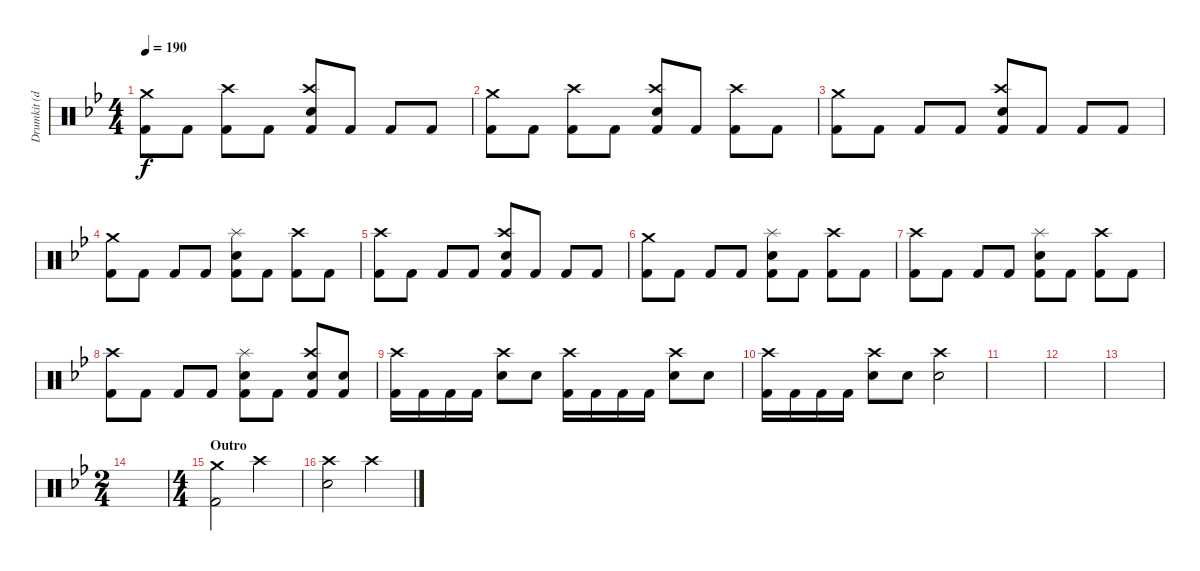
\track ("Drumkit (don't unmute)" "Drumkit (d") {instrument percussion}
\staff {score}
\articulation defaults
\ts (4 4)
\tempo 190
\clef neutral
\ks bb
("Kick (hit) 2" "Crash medium (hit)").8{dy f} "Kick (hit) 2".8 ("Kick (hit) 2" "Crash high (hit)").8 "Kick (hit) 2".8 ("Kick (hit) 2" "Snare (hit) 2" "Crash high (hit)").8 "Kick (hit) 2".8 "Kick (hit) 2".8 "Kick (hit) 2".8 |
("Kick (hit) 2" "Crash medium (hit)").8 "Kick (hit) 2".8 ("Kick (hit) 2" "Crash high (hit)").8 "Kick (hit) 2".8 ("Kick (hit) 2" "Snare (hit) 2" "Crash high (hit)").8 "Kick (hit) 2".8 ("Kick (hit) 2" "Crash high (hit)").8 "Kick (hit) 2".8 |
("Kick (hit) 2" "Crash medium (hit)").8 "Kick (hit) 2".8 "Kick (hit) 2".8 "Kick (hit) 2".8 ("Kick (hit) 2" "Snare (hit) 2" "Crash high (hit)").8 "Kick (hit) 2".8 "Kick (hit) 2".8 "Kick (hit) 2".8 |
("Kick (hit) 2" "Crash medium (hit)").8 "Kick (hit) 2".8 "Kick (hit) 2".8 "Kick (hit) 2".8 ("Kick (hit) 2" "Snare (hit) 2" "Splash (hit)").8 "Kick (hit) 2".8 ("Kick (hit) 2" "Crash high (hit)").8 "Kick (hit) 2".8 |
("Kick (hit) 2" "Crash high (hit)").8 "Kick (hit) 2".8 "Kick (hit) 2".8 "Kick (hit) 2".8 ("Kick (hit) 2" "Snare (hit) 2" "Crash high (hit)").8 "Kick (hit) 2".8 "Kick (hit) 2".8 "Kick (hit) 2".8 |
("Kick (hit) 2" "Crash medium (hit)").8 "Kick (hit) 2".8 "Kick (hit) 2".8 "Kick (hit) 2".8 ("Kick (hit) 2" "Snare (hit) 2" "Splash (hit)").8 "Kick (hit) 2".8 ("Kick (hit) 2" "Crash high (hit)").8 "Kick (hit) 2".8 |
("Kick (hit) 2" "Crash high (hit)").8 "Kick (hit) 2".8 "Kick (hit) 2".8 "Kick (hit) 2".8 ("Kick (hit) 2" "Snare (hit) 2" "Splash (hit)").8 "Kick (hit) 2".8 ("Kick (hit) 2" "Crash high (hit)").8 "Kick (hit) 2".8 |
("Kick (hit) 2" "Crash high (hit)").8 "Kick (hit) 2".8 "Kick (hit) 2".8 "Kick (hit) 2".8 ("Kick (hit) 2" "Snare (hit) 2" "Splash (hit)").8 "Kick (hit) 2".8 ("Kick (hit) 2" "Snare (hit) 2" "Crash high (hit)").8 ("Kick (hit) 2" "Snare (hit) 2").8 |
("Kick (hit) 2" "Crash high (hit)").16 "Kick (hit) 2".16 "Kick (hit) 2".16 "Kick (hit) 2".16 ("Snare (hit) 2" "Crash high (hit)").8 "Snare (hit) 2".8 ("Kick (hit) 2" "Crash high (hit)").16 "Kick (hit) 2".16 "Kick (hit) 2".16 "Kick (hit) 2".16 ("Snare (hit) 2" "Crash high (hit)").8 "Snare (hit) 2".8 |
("Kick (hit) 2" "Crash high (hit)").16 "Kick (hit) 2".16 "Kick (hit) 2".16 "Kick (hit) 2".16 ("Snare (hit) 2" "Crash high (hit)").8 "Snare (hit) 2".8 ("Snare (hit) 2" "Crash high (hit)").2 |
|
|
|
\ts (2 4)
|
\ts (4 4)
\section ("" "Outro")
("Crash medium (hit)" "Kick (hit) 2").2 "Crash high (hit)".2 |
("Snare (hit) 2" "Crash high (hit)").2 "Crash high (hit)".2
